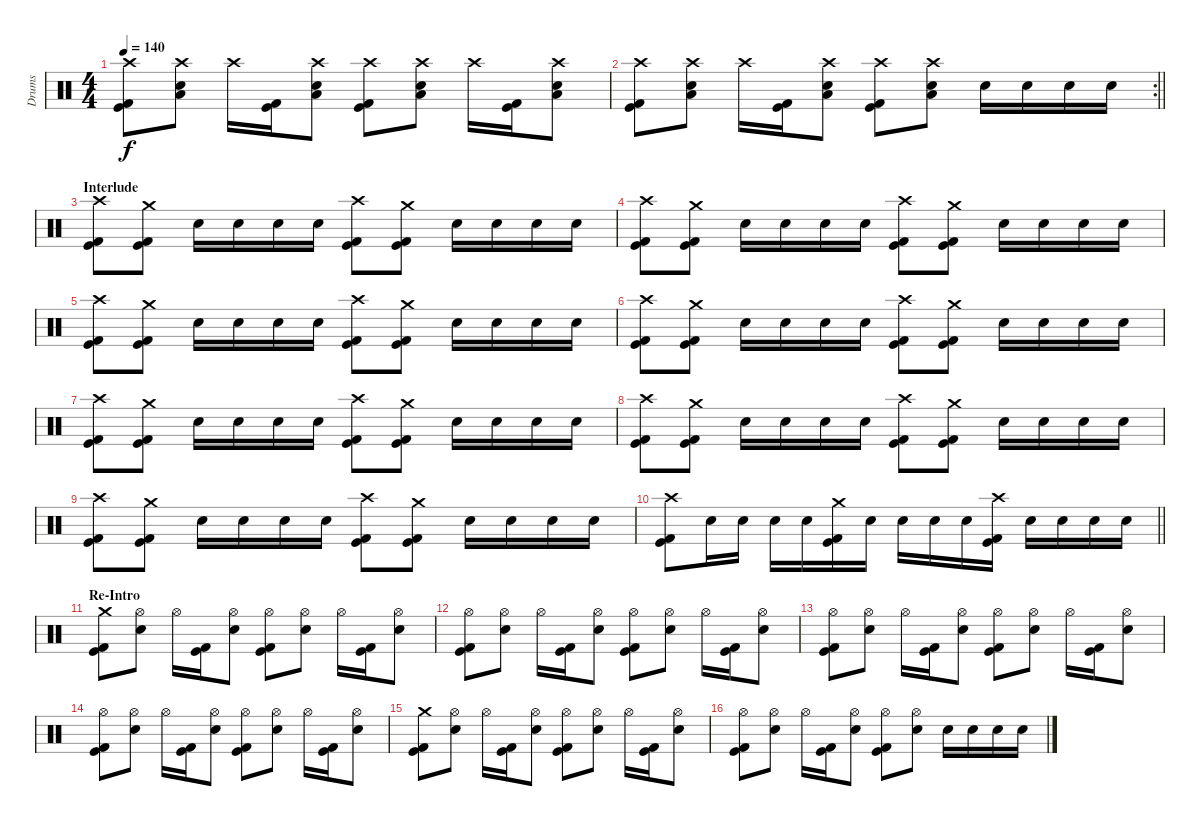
\track ("Drums" "Drums") {instrument percussion}
\staff {score}
\articulation defaults
\ts (4 4)
\tempo 140
\clef neutral
\ks c
("Crash high (hit)" "Kick (hit)" "Kick (hit) 2").8{dy f} ("Crash high (hit)" "Electric Snare (hit)" "Low Floor Tom (hit)").8 "Crash high (hit)".16 ("Kick (hit)" "Kick (hit) 2").16 ("Crash high (hit)" "Electric Snare (hit)" "Low Floor Tom (hit)").8 ("Crash high (hit)" "Kick (hit)" "Kick (hit) 2").8 ("Crash high (hit)" "Electric Snare (hit)" "Low Floor Tom (hit)").8 "Crash high (hit)".16 ("Kick (hit)" "Kick (hit) 2").16 ("Crash high (hit)" "Electric Snare (hit)" "Low Floor Tom (hit)").8 |
\rc 2
\barLineRight lightlight
("Crash high (hit)" "Kick (hit)" "Kick (hit) 2").8 ("Crash high (hit)" "Electric Snare (hit)" "Low Floor Tom (hit)").8 "Crash high (hit)".16 ("Kick (hit)" "Kick (hit) 2").16 ("Crash high (hit)" "Electric Snare (hit)" "Low Floor Tom (hit)").8 ("Crash high (hit)" "Kick (hit)" "Kick (hit) 2").8 ("Crash high (hit)" "Electric Snare (hit)" "Low Floor Tom (hit)").8 "Electric Snare (hit)".16 "Electric Snare (hit)".16 "Electric Snare (hit)".16 "Electric Snare (hit)".16 |
\section ("" "Interlude")
("Crash high (hit)" "Kick (hit)" "Kick (hit) 2").8 ("Crash medium (hit)" "Kick (hit)" "Kick (hit) 2").8 "Electric Snare (hit)".16 "Electric Snare (hit)".16 "Electric Snare (hit)".16 "Electric Snare (hit)".16 ("Crash high (hit)" "Kick (hit)" "Kick (hit) 2").8 ("Crash medium (hit)" "Kick (hit)" "Kick (hit) 2").8 "Electric Snare (hit)".16 "Electric Snare (hit)".16 "Electric Snare (hit)".16 "Electric Snare (hit)".16 |
("Crash high (hit)" "Kick (hit)" "Kick (hit) 2").8 ("Crash medium (hit)" "Kick (hit)" "Kick (hit) 2").8 "Electric Snare (hit)".16 "Electric Snare (hit)".16 "Electric Snare (hit)".16 "Electric Snare (hit)".16 ("Crash high (hit)" "Kick (hit)" "Kick (hit) 2").8 ("Crash medium (hit)" "Kick (hit)" "Kick (hit) 2").8 "Electric Snare (hit)".16 "Electric Snare (hit)".16 "Electric Snare (hit)".16 "Electric Snare (hit)".16 |
("Crash high (hit)" "Kick (hit)" "Kick (hit) 2").8 ("Crash medium (hit)" "Kick (hit)" "Kick (hit) 2").8 "Electric Snare (hit)".16 "Electric Snare (hit)".16 "Electric Snare (hit)".16 "Electric Snare (hit)".16 ("Crash high (hit)" "Kick (hit)" "Kick (hit) 2").8 ("Crash medium (hit)" "Kick (hit)" "Kick (hit) 2").8 "Electric Snare (hit)".16 "Electric Snare (hit)".16 "Electric Snare (hit)".16 "Electric Snare (hit)".16 |
("Crash high (hit)" "Kick (hit)" "Kick (hit) 2").8 ("Crash medium (hit)" "Kick (hit)" "Kick (hit) 2").8 "Electric Snare (hit)".16 "Electric Snare (hit)".16 "Electric Snare (hit)".16 "Electric Snare (hit)".16 ("Crash high (hit)" "Kick (hit)" "Kick (hit) 2").8 ("Crash medium (hit)" "Kick (hit)" "Kick (hit) 2").8 "Electric Snare (hit)".16 "Electric Snare (hit)".16 "Electric Snare (hit)".16 "Electric Snare (hit)".16 |
("Crash high (hit)" "Kick (hit)" "Kick (hit) 2").8 ("Crash medium (hit)" "Kick (hit)" "Kick (hit) 2").8 "Electric Snare (hit)".16 "Electric Snare (hit)".16 "Electric Snare (hit)".16 "Electric Snare (hit)".16 ("Crash high (hit)" "Kick (hit)" "Kick (hit) 2").8 ("Crash medium (hit)" "Kick (hit)" "Kick (hit) 2").8 "Electric Snare (hit)".16 "Electric Snare (hit)".16 "Electric Snare (hit)".16 "Electric Snare (hit)".16 |
("Crash high (hit)" "Kick (hit)" "Kick (hit) 2").8 ("Crash medium (hit)" "Kick (hit)" "Kick (hit) 2").8 "Electric Snare (hit)".16 "Electric Snare (hit)".16 "Electric Snare (hit)".16 "Electric Snare (hit)".16 ("Crash high (hit)" "Kick (hit)" "Kick (hit) 2").8 ("Crash medium (hit)" "Kick (hit)" "Kick (hit) 2").8 "Electric Snare (hit)".16 "Electric Snare (hit)".16 "Electric Snare (hit)".16 "Electric Snare (hit)".16 |
("Crash high (hit)" "Kick (hit)" "Kick (hit) 2").8 ("Crash medium (hit)" "Kick (hit)" "Kick (hit) 2").8 "Electric Snare (hit)".16 "Electric Snare (hit)".16 "Electric Snare (hit)".16 "Electric Snare (hit)".16 ("Crash high (hit)" "Kick (hit)" "Kick (hit) 2").8 ("Crash medium (hit)" "Kick (hit)" "Kick (hit) 2").8 "Electric Snare (hit)".16 "Electric Snare (hit)".16 "Electric Snare (hit)".16 "Electric Snare (hit)".16 |
\barLineRight lightlight
("Crash high (hit)" "Kick (hit)" "Kick (hit) 2").8 "Electric Snare (hit)".16 "Electric Snare (hit)".16 "Electric Snare (hit)".16 "Electric Snare (hit)".16 ("Crash medium (hit)" "Kick (hit)" "Kick (hit) 2").16 "Electric Snare (hit)".16 "Electric Snare (hit)".16 "Electric Snare (hit)".16 "Electric Snare (hit)".16 ("Crash high (hit)" "Kick (hit)" "Kick (hit) 2").16 "Electric Snare (hit)".16 "Electric Snare (hit)".16 "Electric Snare (hit)".16 "Electric Snare (hit)".16 |
\section ("" "Re-Intro")
("Crash medium (hit)" "Kick (hit)" "Kick (hit) 2").8 ("Hi-Hat (open)" "Electric Snare (hit)").8 "Hi-Hat (open)".16 ("Kick (hit)" "Kick (hit) 2").16 ("Hi-Hat (open)" "Electric Snare (hit)").8 ("Hi-Hat (open)" "Kick (hit)" "Kick (hit) 2").8 ("Hi-Hat (open)" "Electric Snare (hit)").8 "Hi-Hat (open)".16 ("Kick (hit)" "Kick (hit) 2").16 ("Hi-Hat (open)" "Electric Snare (hit)").8 |
("Hi-Hat (open)" "Kick (hit)" "Kick (hit) 2").8 ("Hi-Hat (open)" "Electric Snare (hit)").8 "Hi-Hat (open)".16 ("Kick (hit)" "Kick (hit) 2").16 ("Hi-Hat (open)" "Electric Snare (hit)").8 ("Hi-Hat (open)" "Kick (hit)" "Kick (hit) 2").8 ("Hi-Hat (open)" "Electric Snare (hit)").8 "Hi-Hat (open)".16 ("Kick (hit)" "Kick (hit) 2").16 ("Hi-Hat (open)" "Electric Snare (hit)").8 |
("Hi-Hat (open)" "Kick (hit)" "Kick (hit) 2").8 ("Hi-Hat (open)" "Electric Snare (hit)").8 "Hi-Hat (open)".16 ("Kick (hit)" "Kick (hit) 2").16 ("Hi-Hat (open)" "Electric Snare (hit)").8 ("Hi-Hat (open)" "Kick (hit)" "Kick (hit) 2").8 ("Hi-Hat (open)" "Electric Snare (hit)").8 "Hi-Hat (open)".16 ("Kick (hit)" "Kick (hit) 2").16 ("Hi-Hat (open)" "Electric Snare (hit)").8 |
("Hi-Hat (open)" "Kick (hit)" "Kick (hit) 2").8 ("Hi-Hat (open)" "Electric Snare (hit)").8 "Hi-Hat (open)".16 ("Kick (hit)" "Kick (hit) 2").16 ("Hi-Hat (open)" "Electric Snare (hit)").8 ("Hi-Hat (open)" "Kick (hit)" "Kick (hit) 2").8 ("Hi-Hat (open)" "Electric Snare (hit)").8 "Hi-Hat (open)".16 ("Kick (hit)" "Kick (hit) 2").16 ("Hi-Hat (open)" "Electric Snare (hit)").8 |
("Crash medium (hit)" "Kick (hit)" "Kick (hit) 2").8 ("Hi-Hat (open)" "Electric Snare (hit)").8 "Hi-Hat (open)".16 ("Kick (hit)" "Kick (hit) 2").16 ("Hi-Hat (open)" "Electric Snare (hit)").8 ("Hi-Hat (open)" "Kick (hit)" "Kick (hit) 2").8 ("Hi-Hat (open)" "Electric Snare (hit)").8 "Hi-Hat (open)".16 ("Kick (hit)" "Kick (hit) 2").16 ("Hi-Hat (open)" "Electric Snare (hit)").8 |
("Hi-Hat (open)" "Kick (hit)" "Kick (hit) 2").8 ("Hi-Hat (open)" "Electric Snare (hit)").8 "Hi-Hat (open)".16 ("Kick (hit)" "Kick (hit) 2").16 ("Hi-Hat (open)" "Electric Snare (hit)").8 ("Hi-Hat (open)" "Kick (hit)" "Kick (hit) 2").8 ("Hi-Hat (open)" "Electric Snare (hit)").8 "Electric Snare (hit)".16 "Electric Snare (hit)".16 "Electric Snare (hit)".16 "Electric Snare (hit)".16
